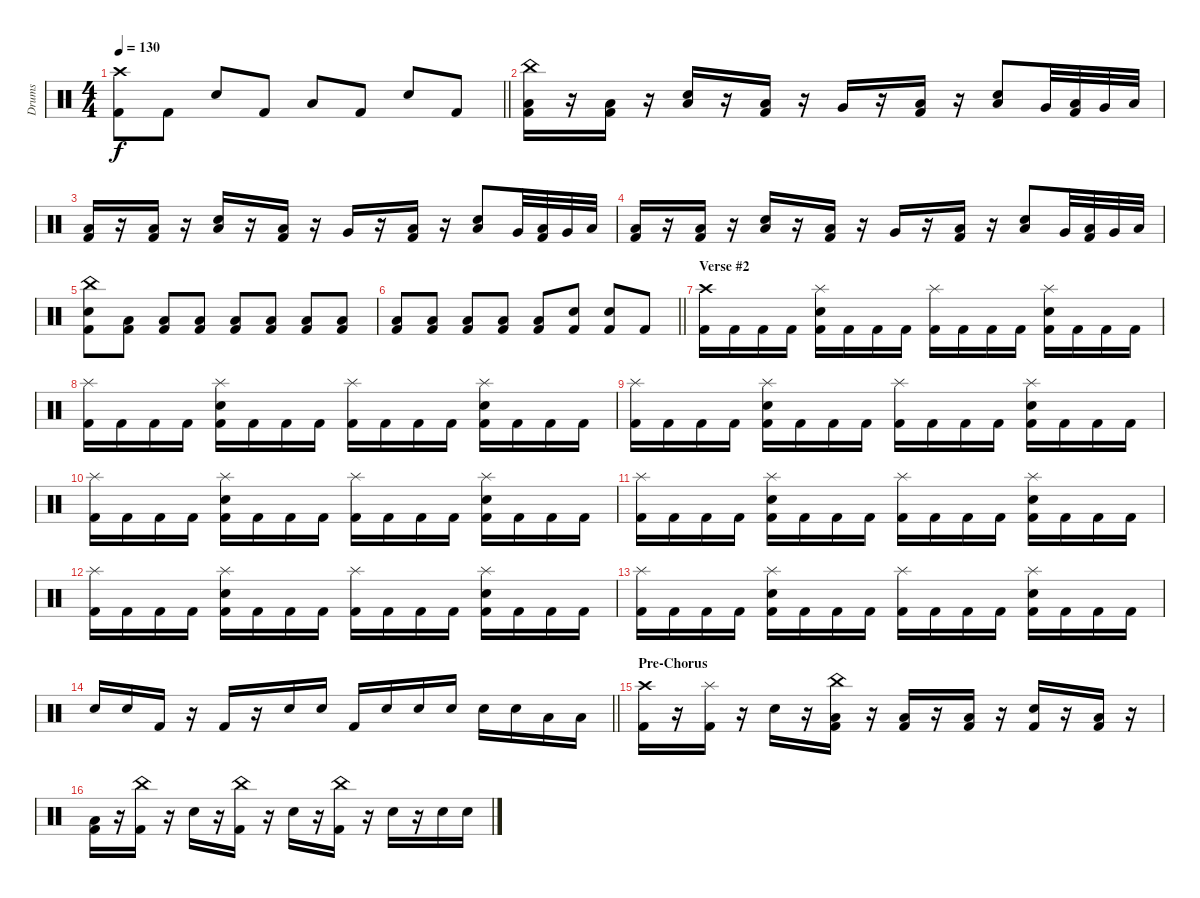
\track ("Drums" "Drums") {instrument percussion}
\staff {score}
\articulation defaults
\ts (4 4)
\tempo 130
\clef neutral
\barLineRight lightlight
\ks c
("Crash high (hit)" "Kick (hit) 2").8{dy f} "Kick (hit) 2".8 "Snare (hit) 2".8 "Kick (hit) 2".8 "Low Floor Tom (hit)".8 "Kick (hit) 2".8 "Snare (hit) 2".8 "Kick (hit) 2".8 |
("China (hit)" "Low Floor Tom (hit)" "Kick (hit) 2").16 r.16 ("Low Floor Tom (hit)" "Kick (hit) 2").16 r.16 ("Low Floor Tom (hit)" "Snare (hit) 2").16 r.16 ("Low Floor Tom (hit)" "Kick (hit) 2").16 r.16 "Very Low Tom (hit)".16 r.16 ("Low Floor Tom (hit)" "Kick (hit) 2").16 r.16 ("Low Floor Tom (hit)" "Snare (hit) 2").8 "Very Low Tom (hit)".32 ("Low Floor Tom (hit)" "Kick (hit) 2").32 "Very Low Tom (hit)".32 "Low Floor Tom (hit)".32 |
("Low Floor Tom (hit)" "Kick (hit) 2").16 r.16 ("Low Floor Tom (hit)" "Kick (hit) 2").16 r.16 ("Low Floor Tom (hit)" "Snare (hit) 2").16 r.16 ("Low Floor Tom (hit)" "Kick (hit) 2").16 r.16 "Very Low Tom (hit)".16 r.16 ("Low Floor Tom (hit)" "Kick (hit) 2").16 r.16 ("Low Floor Tom (hit)" "Snare (hit) 2").8 "Very Low Tom (hit)".32 ("Low Floor Tom (hit)" "Kick (hit) 2").32 "Very Low Tom (hit)".32 "Low Floor Tom (hit)".32 |
("Low Floor Tom (hit)" "Kick (hit) 2").16 r.16 ("Low Floor Tom (hit)" "Kick (hit) 2").16 r.16 ("Low Floor Tom (hit)" "Snare (hit) 2").16 r.16 ("Low Floor Tom (hit)" "Kick (hit) 2").16 r.16 "Very Low Tom (hit)".16 r.16 ("Low Floor Tom (hit)" "Kick (hit) 2").16 r.16 ("Low Floor Tom (hit)" "Snare (hit) 2").8 "Very Low Tom (hit)".32 ("Low Floor Tom (hit)" "Kick (hit) 2").32 "Very Low Tom (hit)".32 "Low Floor Tom (hit)".32 |
("China (hit)" "Snare (hit) 2" "Kick (hit) 2").8 ("Low Floor Tom (hit)" "Kick (hit) 2").8 ("Low Floor Tom (hit)" "Kick (hit) 2").8 ("Low Floor Tom (hit)" "Kick (hit) 2").8 ("Low Floor Tom (hit)" "Kick (hit) 2").8 ("Low Floor Tom (hit)" "Kick (hit) 2").8 ("Low Floor Tom (hit)" "Kick (hit) 2").8 ("Low Floor Tom (hit)" "Kick (hit) 2").8 |
\barLineRight lightlight
("Low Floor Tom (hit)" "Kick (hit) 2").8 ("Low Floor Tom (hit)" "Kick (hit) 2").8 ("Low Floor Tom (hit)" "Kick (hit) 2").8 ("Low Floor Tom (hit)" "Kick (hit) 2").8 ("Low Floor Tom (hit)" "Kick (hit) 2").8 ("Snare (hit) 2" "Kick (hit) 2").8 ("Snare (hit) 2" "Kick (hit) 2").8 "Kick (hit) 2".8 |
\section ("" "Verse #2")
("Crash high (hit)" "Kick (hit) 2").16 "Kick (hit) 2".16 "Kick (hit) 2".16 "Kick (hit) 2".16 ("Splash (hit)" "Snare (hit) 2" "Kick (hit) 2").16 "Kick (hit) 2".16 "Kick (hit) 2".16 "Kick (hit) 2".16 ("Splash (hit)" "Kick (hit) 2").16 "Kick (hit) 2".16 "Kick (hit) 2".16 "Kick (hit) 2".16 ("Splash (hit)" "Snare (hit) 2" "Kick (hit) 2").16 "Kick (hit) 2".16 "Kick (hit) 2".16 "Kick (hit) 2".16 |
("Splash (hit)" "Kick (hit) 2").16 "Kick (hit) 2".16 "Kick (hit) 2".16 "Kick (hit) 2".16 ("Splash (hit)" "Snare (hit) 2" "Kick (hit) 2").16 "Kick (hit) 2".16 "Kick (hit) 2".16 "Kick (hit) 2".16 ("Splash (hit)" "Kick (hit) 2").16 "Kick (hit) 2".16 "Kick (hit) 2".16 "Kick (hit) 2".16 ("Splash (hit)" "Snare (hit) 2" "Kick (hit) 2").16 "Kick (hit) 2".16 "Kick (hit) 2".16 "Kick (hit) 2".16 |
("Splash (hit)" "Kick (hit) 2").16 "Kick (hit) 2".16 "Kick (hit) 2".16 "Kick (hit) 2".16 ("Splash (hit)" "Snare (hit) 2" "Kick (hit) 2").16 "Kick (hit) 2".16 "Kick (hit) 2".16 "Kick (hit) 2".16 ("Splash (hit)" "Kick (hit) 2").16 "Kick (hit) 2".16 "Kick (hit) 2".16 "Kick (hit) 2".16 ("Splash (hit)" "Snare (hit) 2" "Kick (hit) 2").16 "Kick (hit) 2".16 "Kick (hit) 2".16 "Kick (hit) 2".16 |
("Splash (hit)" "Kick (hit) 2").16 "Kick (hit) 2".16 "Kick (hit) 2".16 "Kick (hit) 2".16 ("Splash (hit)" "Snare (hit) 2" "Kick (hit) 2").16 "Kick (hit) 2".16 "Kick (hit) 2".16 "Kick (hit) 2".16 ("Splash (hit)" "Kick (hit) 2").16 "Kick (hit) 2".16 "Kick (hit) 2".16 "Kick (hit) 2".16 ("Splash (hit)" "Snare (hit) 2" "Kick (hit) 2").16 "Kick (hit) 2".16 "Kick (hit) 2".16 "Kick (hit) 2".16 |
("Splash (hit)" "Kick (hit) 2").16 "Kick (hit) 2".16 "Kick (hit) 2".16 "Kick (hit) 2".16 ("Splash (hit)" "Snare (hit) 2" "Kick (hit) 2").16 "Kick (hit) 2".16 "Kick (hit) 2".16 "Kick (hit) 2".16 ("Splash (hit)" "Kick (hit) 2").16 "Kick (hit) 2".16 "Kick (hit) 2".16 "Kick (hit) 2".16 ("Splash (hit)" "Snare (hit) 2" "Kick (hit) 2").16 "Kick (hit) 2".16 "Kick (hit) 2".16 "Kick (hit) 2".16 |
("Splash (hit)" "Kick (hit) 2").16 "Kick (hit) 2".16 "Kick (hit) 2".16 "Kick (hit) 2".16 ("Splash (hit)" "Snare (hit) 2" "Kick (hit) 2").16 "Kick (hit) 2".16 "Kick (hit) 2".16 "Kick (hit) 2".16 ("Splash (hit)" "Kick (hit) 2").16 "Kick (hit) 2".16 "Kick (hit) 2".16 "Kick (hit) 2".16 ("Splash (hit)" "Snare (hit) 2" "Kick (hit) 2").16 "Kick (hit) 2".16 "Kick (hit) 2".16 "Kick (hit) 2".16 |
("Splash (hit)" "Kick (hit) 2").16 "Kick (hit) 2".16 "Kick (hit) 2".16 "Kick (hit) 2".16 ("Splash (hit)" "Snare (hit) 2" "Kick (hit) 2").16 "Kick (hit) 2".16 "Kick (hit) 2".16 "Kick (hit) 2".16 ("Splash (hit)" "Kick (hit) 2").16 "Kick (hit) 2".16 "Kick (hit) 2".16 "Kick (hit) 2".16 ("Splash (hit)" "Snare (hit) 2" "Kick (hit) 2").16 "Kick (hit) 2".16 "Kick (hit) 2".16 "Kick (hit) 2".16 |
\barLineRight lightlight "Snare (hit) 2".16 "Snare (hit) 2".16 "Kick (hit) 2".16
r.16 "Kick (hit) 2".16 r.16 "Snare (hit) 2".16 "Snare (hit) 2".16 "Kick (hit) 2".16 "Snare (hit) 2".16 "Snare (hit) 2".16 "Snare (hit) 2".16 "Snare (hit) 2".16 "Snare (hit) 2".16 "Low Tom (hit)".16 "Low Tom (hit)".16 |
\section ("" "Pre-Chorus")
("Crash high (hit)" "Kick (hit) 2").16 r.16 ("Splash (hit)" "Kick (hit) 2").16 r.16 "Snare (hit) 2".16 r.16 ("China (hit)" "Low Floor Tom (hit)" "Kick (hit) 2").16 r.16 ("Low Floor Tom (hit)" "Kick (hit) 2").16 r.16 ("Low Floor Tom (hit)" "Kick (hit) 2").16 r.16 ("Snare (hit) 2" "Kick (hit) 2").16 r.16 ("Low Floor Tom (hit)" "Kick (hit) 2").16 r.16 |
("Low Floor Tom (hit)" "Kick (hit) 2").16 r.16 ("China (hit)" "Kick (hit) 2").16 r.16 "Snare (hit) 2".16 r.16 ("China (hit)" "Kick (hit) 2").16 r.16 "Snare (hit) 2".16 r.16 ("China (hit)" "Kick (hit) 2").16 r.16 "Snare (hit) 2".16 r.16 "Snare (hit) 2".16 "Snare (hit) 2".16
